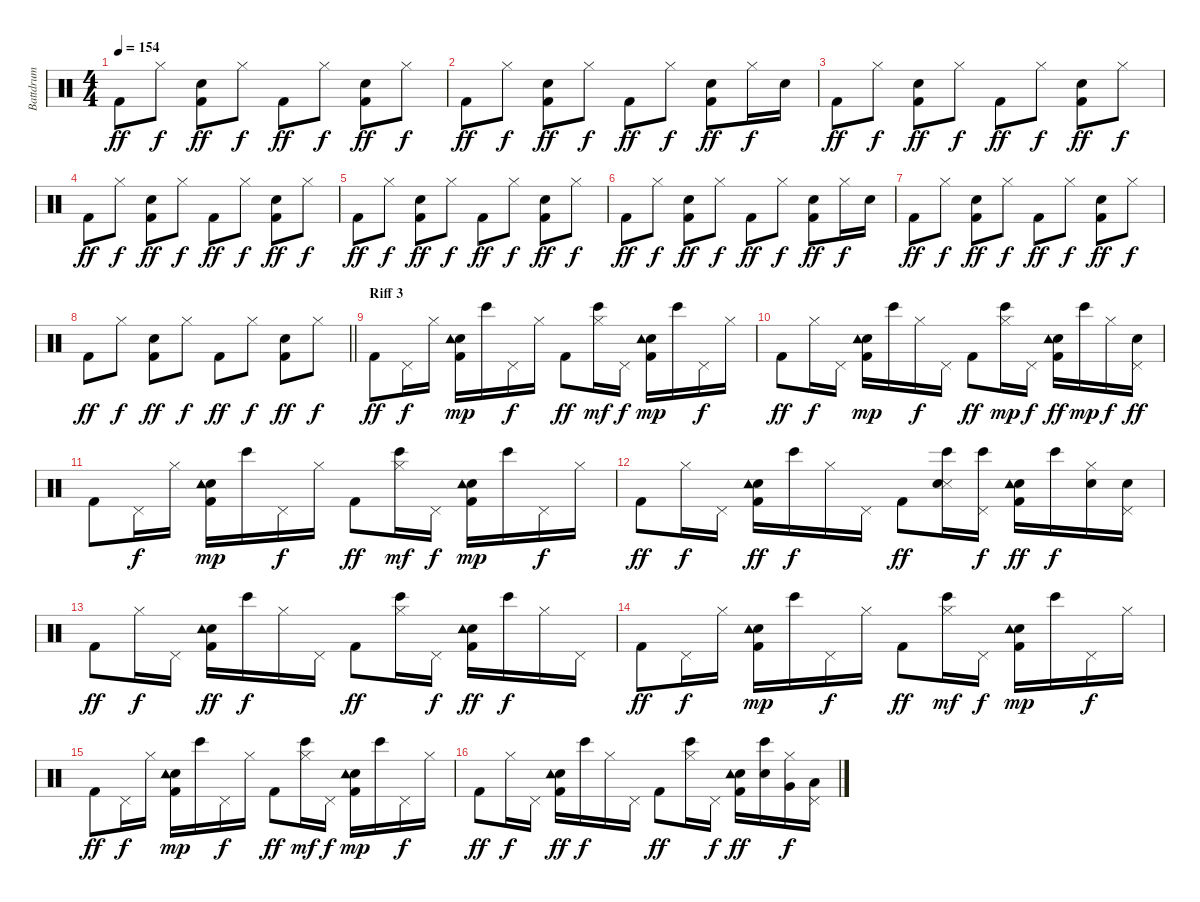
\track ("Battdrum" "Battdrum") {instrument percussion}
\staff {score}
\articulation defaults
\ts (4 4)
\tempo 154
\clef neutral
\ks c "Kick (hit) 2".8{dy ff} "Hi-Hat (closed)".8{dy f}
("Kick (hit) 2" "Electric Snare (hit)").8{dy ff} "Hi-Hat (closed)".8{dy f} "Kick (hit) 2".8{dy ff} "Hi-Hat (closed)".8{dy f} ("Kick (hit) 2" "Electric Snare (hit)").8{dy ff} "Hi-Hat (closed)".8{dy f} |
"Kick (hit) 2".8{dy ff} "Hi-Hat (closed)".8{dy f} ("Kick (hit) 2" "Electric Snare (hit)").8{dy ff} "Hi-Hat (closed)".8{dy f} "Kick (hit) 2".8{dy ff} "Hi-Hat (closed)".8{dy f} ("Kick (hit) 2" "Electric Snare (hit)").8{dy ff} "Hi-Hat (closed)".16{dy f} "Electric Snare (hit)".16 |
"Kick (hit) 2".8{dy ff} "Hi-Hat (closed)".8{dy f} ("Kick (hit) 2" "Electric Snare (hit)").8{dy ff} "Hi-Hat (closed)".8{dy f} "Kick (hit) 2".8{dy ff} "Hi-Hat (closed)".8{dy f} ("Kick (hit) 2" "Electric Snare (hit)").8{dy ff} "Hi-Hat (closed)".8{dy f} |
"Kick (hit) 2".8{dy ff} "Hi-Hat (closed)".8{dy f} ("Kick (hit) 2" "Electric Snare (hit)").8{dy ff} "Hi-Hat (closed)".8{dy f} "Kick (hit) 2".8{dy ff} "Hi-Hat (closed)".8{dy f} ("Kick (hit) 2" "Electric Snare (hit)").8{dy ff} "Hi-Hat (closed)".8{dy f} |
"Kick (hit) 2".8{dy ff} "Hi-Hat (closed)".8{dy f} ("Kick (hit) 2" "Electric Snare (hit)").8{dy ff} "Hi-Hat (closed)".8{dy f} "Kick (hit) 2".8{dy ff} "Hi-Hat (closed)".8{dy f} ("Kick (hit) 2" "Electric Snare (hit)").8{dy ff} "Hi-Hat (closed)".8{dy f} |
"Kick (hit) 2".8{dy ff} "Hi-Hat (closed)".8{dy f} ("Kick (hit) 2" "Electric Snare (hit)").8{dy ff} "Hi-Hat (closed)".8{dy f} "Kick (hit) 2".8{dy ff} "Hi-Hat (closed)".8{dy f} ("Kick (hit) 2" "Electric Snare (hit)").8{dy ff} "Hi-Hat (closed)".16{dy f} "Electric Snare (hit)".16 |
"Kick (hit) 2".8{dy ff} "Hi-Hat (closed)".8{dy f} ("Kick (hit) 2" "Electric Snare (hit)").8{dy ff} "Hi-Hat (closed)".8{dy f} "Kick (hit) 2".8{dy ff} "Hi-Hat (closed)".8{dy f} ("Kick (hit) 2" "Electric Snare (hit)").8{dy ff} "Hi-Hat (closed)".8{dy f} |
\barLineRight lightlight "Kick (hit) 2".8{dy ff} "Hi-Hat (closed)".8{dy f}
("Kick (hit) 2" "Electric Snare (hit)").8{dy ff} "Hi-Hat (closed)".8{dy f} "Kick (hit) 2".8{dy ff} "Hi-Hat (closed)".8{dy f} ("Kick (hit) 2" "Electric Snare (hit)").8{dy ff} "Hi-Hat (closed)".8{dy f} |
\section ("" "Riff 3")
"Kick (hit) 2".8{dy ff} "Pedal Hi-Hat (hit)".16{dy f} "Hi-Hat (closed)".16 ("Kick (hit) 2" "Electric Snare (hit)" "Tambourine (hit)").16{dy mp} "Bongo High (hit)".16 "Pedal Hi-Hat (hit)".16{dy f} "Hi-Hat (closed)".16 "Kick (hit) 2".8{dy ff} ("Bongo High (hit)" "Hi-Hat (closed)").16{dy mf} "Pedal Hi-Hat (hit)".16{dy f} ("Kick (hit) 2" "Electric Snare (hit)" "Tambourine (hit)").16{dy mp} "Bongo High (hit)".16 "Pedal Hi-Hat (hit)".16{dy f} "Hi-Hat (closed)".16 |
"Kick (hit) 2".8{dy ff} "Hi-Hat (closed)".16{dy f} "Pedal Hi-Hat (hit)".16 ("Kick (hit) 2" "Electric Snare (hit)" "Tambourine (hit)").16{dy mp} "Bongo High (hit)".16 "Hi-Hat (closed)".16{dy f} "Pedal Hi-Hat (hit)".16 "Kick (hit) 2".8{dy ff} ("Bongo High (hit)" "Hi-Hat (closed)").16{dy mp} "Pedal Hi-Hat (hit)".16{dy f} ("Kick (hit) 2" "Electric Snare (hit)" "Tambourine (hit)").16{dy ff} "Bongo High (hit)".16{dy mp} "Hi-Hat (closed)".16{dy f} ("Electric Snare (hit)" "Pedal Hi-Hat (hit)").16{dy ff} |
"Kick (hit) 2".8 "Pedal Hi-Hat (hit)".16{dy f} "Hi-Hat (closed)".16 ("Kick (hit) 2" "Electric Snare (hit)" "Tambourine (hit)").16{dy mp} "Bongo High (hit)".16 "Pedal Hi-Hat (hit)".16{dy f} "Hi-Hat (closed)".16 "Kick (hit) 2".8{dy ff} ("Bongo High (hit)" "Hi-Hat (closed)").16{dy mf} "Pedal Hi-Hat (hit)".16{dy f} ("Kick (hit) 2" "Electric Snare (hit)" "Tambourine (hit)").16{dy mp} "Bongo High (hit)".16 "Pedal Hi-Hat (hit)".16{dy f} "Hi-Hat (closed)".16 |
"Kick (hit) 2".8{dy ff} "Hi-Hat (closed)".16{dy f} "Pedal Hi-Hat (hit)".16 ("Kick (hit) 2" "Electric Snare (hit)" "Tambourine (hit)").16{dy ff} "Bongo High (hit)".16{dy f} "Hi-Hat (closed)".16 "Pedal Hi-Hat (hit)".16 "Kick (hit) 2".8{dy ff} ("Snare (side stick) 3" "Electric Snare (hit)" "Bongo High (hit)").16 ("Bongo High (hit)" "Pedal Hi-Hat (hit)").16{dy f} ("Kick (hit) 2" "Electric Snare (hit)" "Tambourine (hit)").16{dy ff} "Bongo High (hit)".16{dy f} ("Electric Snare (hit)" "Hi-Hat (closed)").16 ("Electric Snare (hit)" "Pedal Hi-Hat (hit)").16 |
"Kick (hit) 2".8{dy ff} "Hi-Hat (closed)".16{dy f} "Pedal Hi-Hat (hit)".16 ("Kick (hit) 2" "Electric Snare (hit)" "Tambourine (hit)").16{dy ff} "Bongo High (hit)".16{dy f} "Hi-Hat (closed)".16 "Pedal Hi-Hat (hit)".16 "Kick (hit) 2".8{dy ff} ("Bongo High (hit)" "Hi-Hat (closed)").16 "Pedal Hi-Hat (hit)".16{dy f} ("Kick (hit) 2" "Electric Snare (hit)" "Tambourine (hit)").16{dy ff} "Bongo High (hit)".16{dy f} "Hi-Hat (closed)".16 "Pedal Hi-Hat (hit)".16 |
"Kick (hit) 2".8{dy ff} "Pedal Hi-Hat (hit)".16{dy f} "Hi-Hat (closed)".16 ("Kick (hit) 2" "Electric Snare (hit)" "Tambourine (hit)").16{dy mp} "Bongo High (hit)".16 "Pedal Hi-Hat (hit)".16{dy f} "Hi-Hat (closed)".16 "Kick (hit) 2".8{dy ff} ("Bongo High (hit)" "Hi-Hat (closed)").16{dy mf} "Pedal Hi-Hat (hit)".16{dy f} ("Kick (hit) 2" "Electric Snare (hit)" "Tambourine (hit)").16{dy mp} "Bongo High (hit)".16 "Pedal Hi-Hat (hit)".16{dy f} "Hi-Hat (closed)".16 |
"Kick (hit) 2".8{dy ff} "Pedal Hi-Hat (hit)".16{dy f} "Hi-Hat (closed)".16 ("Kick (hit) 2" "Electric Snare (hit)" "Tambourine (hit)").16{dy mp} "Bongo High (hit)".16 "Pedal Hi-Hat (hit)".16{dy f} "Hi-Hat (closed)".16 "Kick (hit) 2".8{dy ff} ("Bongo High (hit)" "Hi-Hat (closed)").16{dy mf} "Pedal Hi-Hat (hit)".16{dy f} ("Kick (hit) 2" "Electric Snare (hit)" "Tambourine (hit)").16{dy mp} "Bongo High (hit)".16 "Pedal Hi-Hat (hit)".16{dy f} "Hi-Hat (closed)".16 |
"Kick (hit) 2".8{dy ff} "Hi-Hat (closed)".16{dy f} "Pedal Hi-Hat (hit)".16 ("Kick (hit) 2" "Electric Snare (hit)" "Tambourine (hit)").16{dy ff} "Bongo High (hit)".16{dy f} "Hi-Hat (closed)".16 "Pedal Hi-Hat (hit)".16 "Kick (hit) 2".8{dy ff} ("Bongo High (hit)" "Hi-Hat (closed)").16 "Pedal Hi-Hat (hit)".16{dy f} ("Kick (hit) 2" "Electric Snare (hit)" "Tambourine (hit)").16{dy ff} ("Electric Snare (hit)" "Bongo High (hit)").16 ("Hi-Hat (closed)" "Very Low Tom (hit)").16{dy f} ("Pedal Hi-Hat (hit)" "Low Tom (hit)").16
